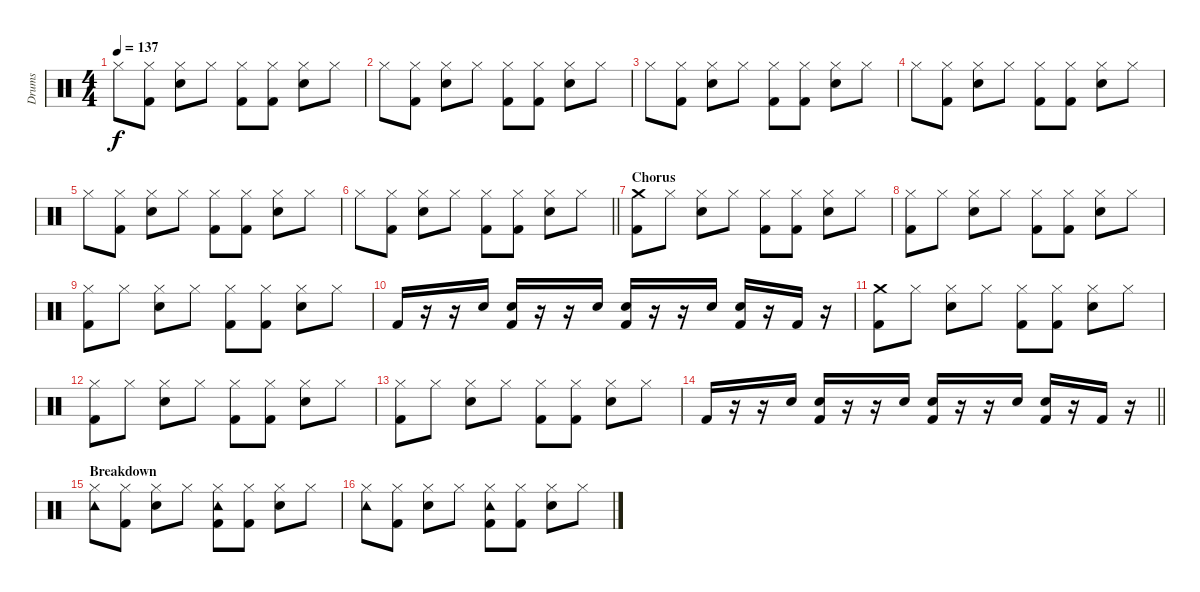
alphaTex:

\track ("Drums" "Drums") {instrument percussion}
\staff {score}
\articulation defaults
\ts (4 4)
\tempo 137
\clef neutral
\ks c "Hi-Hat (closed)".8{dy f}
("Hi-Hat (closed)" "Kick (hit) 2").8 ("Hi-Hat (closed)" "Snare (hit) 2").8 "Hi-Hat (closed)".8 ("Hi-Hat (closed)" "Kick (hit) 2").8 ("Hi-Hat (closed)" "Kick (hit) 2").8 ("Hi-Hat (closed)" "Snare (hit) 2").8 "Hi-Hat (closed)".8 |
"Hi-Hat (closed)".8 ("Hi-Hat (closed)" "Kick (hit) 2").8 ("Hi-Hat (closed)" "Snare (hit) 2").8 "Hi-Hat (closed)".8 ("Hi-Hat (closed)" "Kick (hit) 2").8 ("Hi-Hat (closed)" "Kick (hit) 2").8 ("Hi-Hat (closed)" "Snare (hit) 2").8 "Hi-Hat (closed)".8 |
"Hi-Hat (closed)".8 ("Hi-Hat (closed)" "Kick (hit) 2").8 ("Hi-Hat (closed)" "Snare (hit) 2").8 "Hi-Hat (closed)".8 ("Hi-Hat (closed)" "Kick (hit) 2").8 ("Hi-Hat (closed)" "Kick (hit) 2").8 ("Hi-Hat (closed)" "Snare (hit) 2").8 "Hi-Hat (closed)".8 |
"Hi-Hat (closed)".8 ("Hi-Hat (closed)" "Kick (hit) 2").8 ("Hi-Hat (closed)" "Snare (hit) 2").8 "Hi-Hat (closed)".8 ("Hi-Hat (closed)" "Kick (hit) 2").8 ("Hi-Hat (closed)" "Kick (hit) 2").8 ("Hi-Hat (closed)" "Snare (hit) 2").8 "Hi-Hat (closed)".8 |
"Hi-Hat (closed)".8 ("Hi-Hat (closed)" "Kick (hit) 2").8 ("Hi-Hat (closed)" "Snare (hit) 2").8 "Hi-Hat (closed)".8 ("Hi-Hat (closed)" "Kick (hit) 2").8 ("Hi-Hat (closed)" "Kick (hit) 2").8 ("Hi-Hat (closed)" "Snare (hit) 2").8 "Hi-Hat (closed)".8 |
\barLineRight lightlight "Hi-Hat (closed)".8
("Hi-Hat (closed)" "Kick (hit) 2").8 ("Hi-Hat (closed)" "Snare (hit) 2").8 "Hi-Hat (closed)".8 ("Hi-Hat (closed)" "Kick (hit) 2").8 ("Hi-Hat (closed)" "Kick (hit) 2").8 ("Hi-Hat (closed)" "Snare (hit) 2").8 "Hi-Hat (closed)".8 |
\section ("" "Chorus")
("Crash medium (hit)" "Kick (hit) 2").8 "Hi-Hat (closed)".8 ("Hi-Hat (closed)" "Snare (hit) 2").8 "Hi-Hat (closed)".8 ("Hi-Hat (closed)" "Kick (hit) 2").8 ("Hi-Hat (closed)" "Kick (hit) 2").8 ("Hi-Hat (closed)" "Snare (hit) 2").8 "Hi-Hat (closed)".8 |
("Hi-Hat (closed)" "Kick (hit) 2").8 "Hi-Hat (closed)".8 ("Hi-Hat (closed)" "Snare (hit) 2").8 "Hi-Hat (closed)".8 ("Hi-Hat (closed)" "Kick (hit) 2").8 ("Hi-Hat (closed)" "Kick (hit) 2").8 ("Hi-Hat (closed)" "Snare (hit) 2").8 "Hi-Hat (closed)".8 |
("Hi-Hat (closed)" "Kick (hit) 2").8 "Hi-Hat (closed)".8 ("Hi-Hat (closed)" "Snare (hit) 2").8 "Hi-Hat (closed)".8 ("Hi-Hat (closed)" "Kick (hit) 2").8 ("Hi-Hat (closed)" "Kick (hit) 2").8 ("Hi-Hat (closed)" "Snare (hit) 2").8 "Hi-Hat (closed)".8 |
"Kick (hit) 2".16 r.16 r.16 "Snare (hit) 2".16 ("Snare (hit) 2" "Kick (hit) 2").16 r.16 r.16 "Snare (hit) 2".16 ("Snare (hit) 2" "Kick (hit) 2").16 r.16 r.16 "Snare (hit) 2".16 ("Snare (hit) 2" "Kick (hit) 2").16 r.16 "Kick (hit) 2".16 r.16 |
("Crash medium (hit)" "Kick (hit) 2").8 "Hi-Hat (closed)".8 ("Hi-Hat (closed)" "Snare (hit) 2").8 "Hi-Hat (closed)".8 ("Hi-Hat (closed)" "Kick (hit) 2").8 ("Hi-Hat (closed)" "Kick (hit) 2").8 ("Hi-Hat (closed)" "Snare (hit) 2").8 "Hi-Hat (closed)".8 |
("Hi-Hat (closed)" "Kick (hit) 2").8 "Hi-Hat (closed)".8 ("Hi-Hat (closed)" "Snare (hit) 2").8 "Hi-Hat (closed)".8 ("Hi-Hat (closed)" "Kick (hit) 2").8 ("Hi-Hat (closed)" "Kick (hit) 2").8 ("Hi-Hat (closed)" "Snare (hit) 2").8 "Hi-Hat (closed)".8 |
("Hi-Hat (closed)" "Kick (hit) 2").8 "Hi-Hat (closed)".8 ("Hi-Hat (closed)" "Snare (hit) 2").8 "Hi-Hat (closed)".8 ("Hi-Hat (closed)" "Kick (hit) 2").8 ("Hi-Hat (closed)" "Kick (hit) 2").8 ("Hi-Hat (closed)" "Snare (hit) 2").8 "Hi-Hat (closed)".8 |
\barLineRight lightlight "Kick (hit) 2".16
r.16 r.16 "Snare (hit) 2".16 ("Snare (hit) 2" "Kick (hit) 2").16 r.16 r.16 "Snare (hit) 2".16 ("Snare (hit) 2" "Kick (hit) 2").16 r.16 r.16 "Snare (hit) 2".16 ("Snare (hit) 2" "Kick (hit) 2").16 r.16 "Kick (hit) 2".16 r.16 |
\section ("" "Breakdown")
("Hi-Hat (closed)" "Tambourine (hit)").8 ("Hi-Hat (closed)" "Kick (hit) 2").8 ("Hi-Hat (closed)" "Snare (hit) 2").8 "Hi-Hat (closed)".8 ("Hi-Hat (closed)" "Tambourine (hit)" "Kick (hit) 2").8 ("Hi-Hat (closed)" "Kick (hit) 2").8 ("Hi-Hat (closed)" "Snare (hit) 2").8 "Hi-Hat (closed)".8 |
("Hi-Hat (closed)" "Tambourine (hit)").8 ("Hi-Hat (closed)" "Kick (hit) 2").8 ("Hi-Hat (closed)" "Snare (hit) 2").8 "Hi-Hat (closed)".8 ("Hi-Hat (closed)" "Tambourine (hit)" "Kick (hit) 2").8 ("Hi-Hat (closed)" "Kick (hit) 2").8 ("Hi-Hat (closed)" "Snare (hit) 2").8 "Hi-Hat (closed)".8
